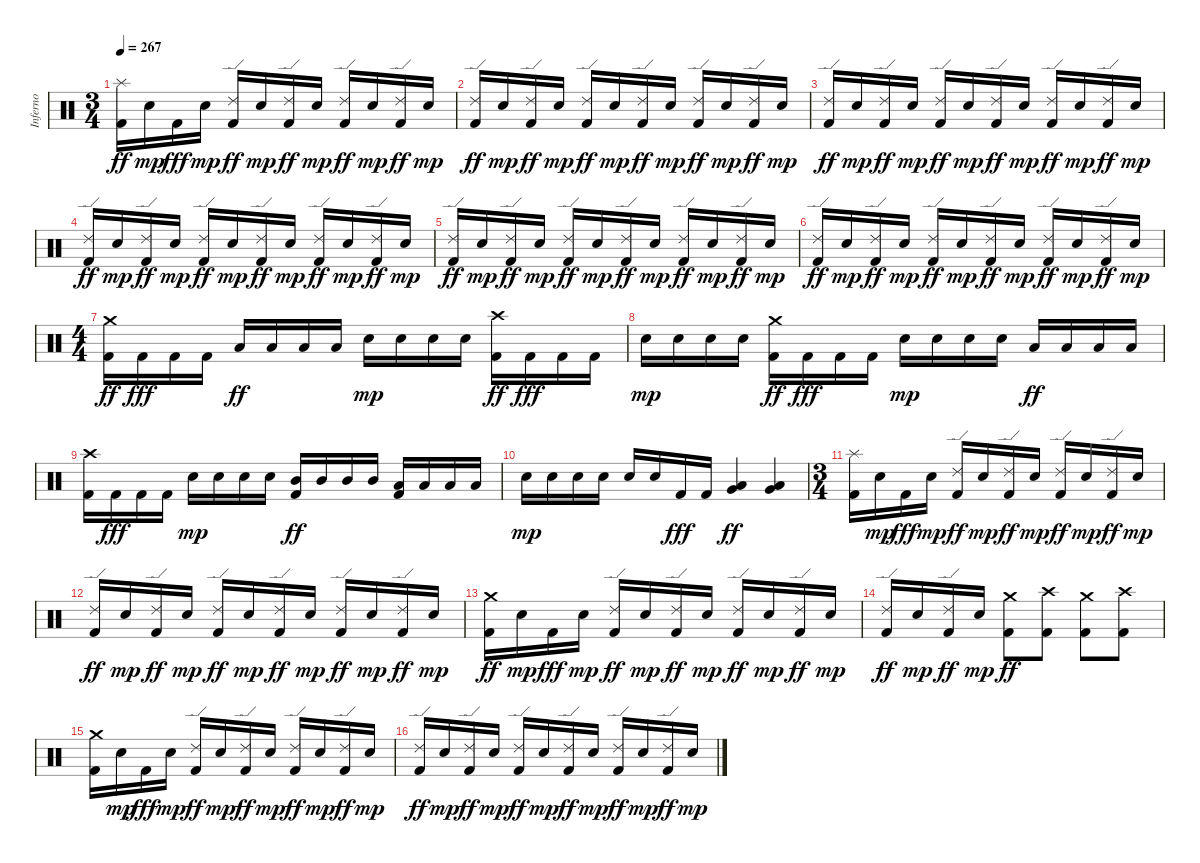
\track ("Inferno" "Inferno") {instrument percussion}
\staff {score}
\articulation defaults
\ts (3 4)
\tempo 267
\clef neutral
\ks c
("Kick (hit) 2" "Splash (hit)").16{dy ff} "Electric Snare (hit)".16{dy mp} "Kick (hit) 2".16{dy fff} "Electric Snare (hit)".16{dy mp} ("Kick (hit) 2" "Ride (edge) 2").16{dy ff} "Electric Snare (hit)".16{dy mp} ("Kick (hit) 2" "Ride (edge) 2").16{dy ff} "Electric Snare (hit)".16{dy mp} ("Kick (hit) 2" "Ride (edge) 2").16{dy ff} "Electric Snare (hit)".16{dy mp} ("Kick (hit) 2" "Ride (edge) 2").16{dy ff} "Electric Snare (hit)".16{dy mp} |
("Kick (hit) 2" "Ride (edge) 2").16{dy ff} "Electric Snare (hit)".16{dy mp} ("Kick (hit) 2" "Ride (edge) 2").16{dy ff} "Electric Snare (hit)".16{dy mp} ("Kick (hit) 2" "Ride (edge) 2").16{dy ff} "Electric Snare (hit)".16{dy mp} ("Kick (hit) 2" "Ride (edge) 2").16{dy ff} "Electric Snare (hit)".16{dy mp} ("Kick (hit) 2" "Ride (edge) 2").16{dy ff} "Electric Snare (hit)".16{dy mp} ("Kick (hit) 2" "Ride (edge) 2").16{dy ff} "Electric Snare (hit)".16{dy mp} |
("Kick (hit) 2" "Ride (edge) 2").16{dy ff} "Electric Snare (hit)".16{dy mp} ("Kick (hit) 2" "Ride (edge) 2").16{dy ff} "Electric Snare (hit)".16{dy mp} ("Kick (hit) 2" "Ride (edge) 2").16{dy ff} "Electric Snare (hit)".16{dy mp} ("Kick (hit) 2" "Ride (edge) 2").16{dy ff} "Electric Snare (hit)".16{dy mp} ("Kick (hit) 2" "Ride (edge) 2").16{dy ff} "Electric Snare (hit)".16{dy mp} ("Kick (hit) 2" "Ride (edge) 2").16{dy ff} "Electric Snare (hit)".16{dy mp} |
("Kick (hit) 2" "Ride (edge) 2").16{dy ff} "Electric Snare (hit)".16{dy mp} ("Kick (hit) 2" "Ride (edge) 2").16{dy ff} "Electric Snare (hit)".16{dy mp} ("Kick (hit) 2" "Ride (edge) 2").16{dy ff} "Electric Snare (hit)".16{dy mp} ("Kick (hit) 2" "Ride (edge) 2").16{dy ff} "Electric Snare (hit)".16{dy mp} ("Kick (hit) 2" "Ride (edge) 2").16{dy ff} "Electric Snare (hit)".16{dy mp} ("Kick (hit) 2" "Ride (edge) 2").16{dy ff} "Electric Snare (hit)".16{dy mp} |
("Kick (hit) 2" "Ride (edge) 2").16{dy ff} "Electric Snare (hit)".16{dy mp} ("Kick (hit) 2" "Ride (edge) 2").16{dy ff} "Electric Snare (hit)".16{dy mp} ("Kick (hit) 2" "Ride (edge) 2").16{dy ff} "Electric Snare (hit)".16{dy mp} ("Kick (hit) 2" "Ride (edge) 2").16{dy ff} "Electric Snare (hit)".16{dy mp} ("Kick (hit) 2" "Ride (edge) 2").16{dy ff} "Electric Snare (hit)".16{dy mp} ("Kick (hit) 2" "Ride (edge) 2").16{dy ff} "Electric Snare (hit)".16{dy mp} |
("Kick (hit) 2" "Ride (edge) 2").16{dy ff} "Electric Snare (hit)".16{dy mp} ("Kick (hit) 2" "Ride (edge) 2").16{dy ff} "Electric Snare (hit)".16{dy mp} ("Kick (hit) 2" "Ride (edge) 2").16{dy ff} "Electric Snare (hit)".16{dy mp} ("Kick (hit) 2" "Ride (edge) 2").16{dy ff} "Electric Snare (hit)".16{dy mp} ("Kick (hit) 2" "Ride (edge) 2").16{dy ff} "Electric Snare (hit)".16{dy mp} ("Kick (hit) 2" "Ride (edge) 2").16{dy ff} "Electric Snare (hit)".16{dy mp} |
\ts (4 4)
("Kick (hit) 2" "Crash medium (hit)").16{dy ff} "Kick (hit) 2".16{dy fff} "Kick (hit) 2".16 "Kick (hit) 2".16 "Low Tom (hit)".16{dy ff} "Low Tom (hit)".16 "Low Tom (hit)".16 "Low Tom (hit)".16 "Electric Snare (hit)".16{dy mp} "Electric Snare (hit)".16 "Electric Snare (hit)".16 "Electric Snare (hit)".16 ("Kick (hit) 2" "Crash high (hit)").16{dy ff} "Kick (hit) 2".16{dy fff} "Kick (hit) 2".16 "Kick (hit) 2".16 |
"Electric Snare (hit)".16{dy mp} "Electric Snare (hit)".16 "Electric Snare (hit)".16 "Electric Snare (hit)".16 ("Kick (hit) 2" "Crash medium (hit)").16{dy ff} "Kick (hit) 2".16{dy fff} "Kick (hit) 2".16 "Kick (hit) 2".16 "Electric Snare (hit)".16{dy mp} "Electric Snare (hit)".16 "Electric Snare (hit)".16 "Electric Snare (hit)".16 "Low Tom (hit)".16{dy ff} "Low Tom (hit)".16 "Low Tom (hit)".16 "Low Tom (hit)".16 |
("Kick (hit) 2" "Crash high (hit)").16 "Kick (hit) 2".16{dy fff} "Kick (hit) 2".16 "Kick (hit) 2".16 "Electric Snare (hit)".16{dy mp} "Electric Snare (hit)".16 "Electric Snare (hit)".16 "Electric Snare (hit)".16 ("Kick (hit) 2" "Mid Tom (hit)").16{dy ff} "Mid Tom (hit)".16 "Mid Tom (hit)".16 "Mid Tom (hit)".16 ("Kick (hit) 2" "Low Tom (hit)").16 "Low Tom (hit)".16 "Low Tom (hit)".16 "Low Tom (hit)".16 |
"Electric Snare (hit)".16{dy mp} "Electric Snare (hit)".16 "Electric Snare (hit)".16 "Electric Snare (hit)".16 "Electric Snare (hit)".16 "Electric Snare (hit)".16 "Kick (hit) 2".16{dy fff} "Kick (hit) 2".16 ("Very Low Tom (hit)" "Low Floor Tom (hit)").4{dy ff} ("Very Low Tom (hit)" "Low Floor Tom (hit)").4 |
\ts (3 4)
("Kick (hit) 2" "Splash (hit)").16 "Electric Snare (hit)".16{dy mp} "Kick (hit) 2".16{dy fff} "Electric Snare (hit)".16{dy mp} ("Kick (hit) 2" "Ride (edge) 2").16{dy ff} "Electric Snare (hit)".16{dy mp} ("Kick (hit) 2" "Ride (edge) 2").16{dy ff} "Electric Snare (hit)".16{dy mp} ("Kick (hit) 2" "Ride (edge) 2").16{dy ff} "Electric Snare (hit)".16{dy mp} ("Kick (hit) 2" "Ride (edge) 2").16{dy ff} "Electric Snare (hit)".16{dy mp} |
("Kick (hit) 2" "Ride (edge) 2").16{dy ff} "Electric Snare (hit)".16{dy mp} ("Kick (hit) 2" "Ride (edge) 2").16{dy ff} "Electric Snare (hit)".16{dy mp} ("Kick (hit) 2" "Ride (edge) 2").16{dy ff} "Electric Snare (hit)".16{dy mp} ("Kick (hit) 2" "Ride (edge) 2").16{dy ff} "Electric Snare (hit)".16{dy mp} ("Kick (hit) 2" "Ride (edge) 2").16{dy ff} "Electric Snare (hit)".16{dy mp} ("Kick (hit) 2" "Ride (edge) 2").16{dy ff} "Electric Snare (hit)".16{dy mp} |
("Kick (hit) 2" "Crash medium (hit)").16{dy ff} "Electric Snare (hit)".16{dy mp} "Kick (hit) 2".16{dy fff} "Electric Snare (hit)".16{dy mp} ("Kick (hit) 2" "Ride (edge) 2").16{dy ff} "Electric Snare (hit)".16{dy mp} ("Kick (hit) 2" "Ride (edge) 2").16{dy ff} "Electric Snare (hit)".16{dy mp} ("Kick (hit) 2" "Ride (edge) 2").16{dy ff} "Electric Snare (hit)".16{dy mp} ("Kick (hit) 2" "Ride (edge) 2").16{dy ff} "Electric Snare (hit)".16{dy mp} |
("Kick (hit) 2" "Ride (edge) 2").16{dy ff} "Electric Snare (hit)".16{dy mp} ("Kick (hit) 2" "Ride (edge) 2").16{dy ff} "Electric Snare (hit)".16{dy mp} ("Kick (hit) 2" "Crash medium (hit)").8{dy ff} ("Kick (hit) 2" "Crash high (hit)").8 ("Kick (hit) 2" "Crash medium (hit)").8 ("Kick (hit) 2" "Crash high (hit)").8 |
("Kick (hit) 2" "Crash medium (hit)").16 "Electric Snare (hit)".16{dy mp} "Kick (hit) 2".16{dy fff} "Electric Snare (hit)".16{dy mp} ("Kick (hit) 2" "Ride (edge) 2").16{dy ff} "Electric Snare (hit)".16{dy mp} ("Kick (hit) 2" "Ride (edge) 2").16{dy ff} "Electric Snare (hit)".16{dy mp} ("Kick (hit) 2" "Ride (edge) 2").16{dy ff} "Electric Snare (hit)".16{dy mp} ("Kick (hit) 2" "Ride (edge) 2").16{dy ff} "Electric Snare (hit)".16{dy mp} |
("Kick (hit) 2" "Ride (edge) 2").16{dy ff} "Electric Snare (hit)".16{dy mp} ("Kick (hit) 2" "Ride (edge) 2").16{dy ff} "Electric Snare (hit)".16{dy mp} ("Kick (hit) 2" "Ride (edge) 2").16{dy ff} "Electric Snare (hit)".16{dy mp} ("Kick (hit) 2" "Ride (edge) 2").16{dy ff} "Electric Snare (hit)".16{dy mp} ("Kick (hit) 2" "Ride (edge) 2").16{dy ff} "Electric Snare (hit)".16{dy mp} ("Kick (hit) 2" "Ride (edge) 2").16{dy ff} "Electric Snare (hit)".16{dy mp}
